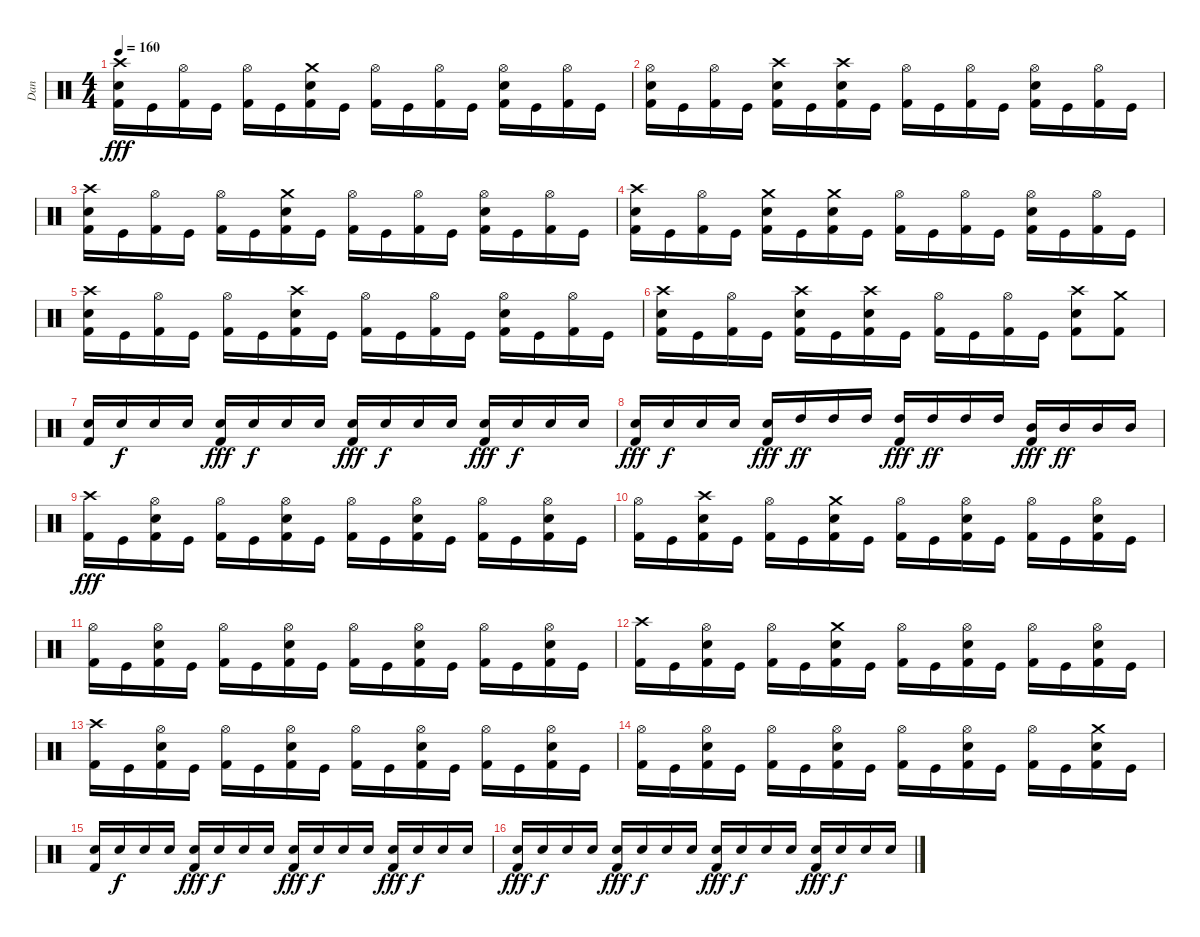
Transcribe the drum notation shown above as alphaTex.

\track ("Dan " "Dan ") {instrument percussion}
\staff {score}
\articulation defaults
\ts (4 4)
\tempo 160
\clef neutral
\ks c
("Crash high (hit)" "Electric Snare (hit)" "Kick (hit) 2").16{dy fff} "Kick (hit)".16 ("Hi-Hat (open)" "Kick (hit) 2").16 "Kick (hit)".16 ("Hi-Hat (open)" "Kick (hit) 2").16 "Kick (hit)".16 ("Crash medium (hit)" "Electric Snare (hit)" "Kick (hit) 2").16 "Kick (hit)".16 ("Hi-Hat (open)" "Kick (hit) 2").16 "Kick (hit)".16 ("Hi-Hat (open)" "Kick (hit) 2").16 "Kick (hit)".16 ("Hi-Hat (open)" "Electric Snare (hit)" "Kick (hit) 2").16 "Kick (hit)".16 ("Hi-Hat (open)" "Kick (hit) 2").16 "Kick (hit)".16 |
("Hi-Hat (open)" "Electric Snare (hit)" "Kick (hit) 2").16 "Kick (hit)".16 ("Hi-Hat (open)" "Kick (hit) 2").16 "Kick (hit)".16 ("Crash high (hit)" "Electric Snare (hit)" "Kick (hit) 2").16 "Kick (hit)".16 ("Crash high (hit)" "Electric Snare (hit)" "Kick (hit) 2").16 "Kick (hit)".16 ("Hi-Hat (open)" "Kick (hit) 2").16 "Kick (hit)".16 ("Hi-Hat (open)" "Kick (hit) 2").16 "Kick (hit)".16 ("Hi-Hat (open)" "Electric Snare (hit)" "Kick (hit) 2").16 "Kick (hit)".16 ("Hi-Hat (open)" "Kick (hit) 2").16 "Kick (hit)".16 |
("Crash high (hit)" "Electric Snare (hit)" "Kick (hit) 2").16 "Kick (hit)".16 ("Hi-Hat (open)" "Kick (hit) 2").16 "Kick (hit)".16 ("Hi-Hat (open)" "Kick (hit) 2").16 "Kick (hit)".16 ("Crash medium (hit)" "Electric Snare (hit)" "Kick (hit) 2").16 "Kick (hit)".16 ("Hi-Hat (open)" "Kick (hit) 2").16 "Kick (hit)".16 ("Hi-Hat (open)" "Kick (hit) 2").16 "Kick (hit)".16 ("Hi-Hat (open)" "Electric Snare (hit)" "Kick (hit) 2").16 "Kick (hit)".16 ("Hi-Hat (open)" "Kick (hit) 2").16 "Kick (hit)".16 |
("Crash high (hit)" "Electric Snare (hit)" "Kick (hit) 2").16 "Kick (hit)".16 ("Hi-Hat (open)" "Kick (hit) 2").16 "Kick (hit)".16 ("Crash medium (hit)" "Electric Snare (hit)" "Kick (hit) 2").16 "Kick (hit)".16 ("Crash medium (hit)" "Electric Snare (hit)" "Kick (hit) 2").16 "Kick (hit)".16 ("Hi-Hat (open)" "Kick (hit) 2").16 "Kick (hit)".16 ("Hi-Hat (open)" "Kick (hit) 2").16 "Kick (hit)".16 ("Hi-Hat (open)" "Electric Snare (hit)" "Kick (hit) 2").16 "Kick (hit)".16 ("Hi-Hat (open)" "Kick (hit) 2").16 "Kick (hit)".16 |
("Crash high (hit)" "Electric Snare (hit)" "Kick (hit) 2").16 "Kick (hit)".16 ("Hi-Hat (open)" "Kick (hit) 2").16 "Kick (hit)".16 ("Hi-Hat (open)" "Kick (hit) 2").16 "Kick (hit)".16 ("Crash high (hit)" "Electric Snare (hit)" "Kick (hit) 2").16 "Kick (hit)".16 ("Hi-Hat (open)" "Kick (hit) 2").16 "Kick (hit)".16 ("Hi-Hat (open)" "Kick (hit) 2").16 "Kick (hit)".16 ("Hi-Hat (open)" "Electric Snare (hit)" "Kick (hit) 2").16 "Kick (hit)".16 ("Hi-Hat (open)" "Kick (hit) 2").16 "Kick (hit)".16 |
("Crash high (hit)" "Electric Snare (hit)" "Kick (hit) 2").16 "Kick (hit)".16 ("Hi-Hat (open)" "Kick (hit) 2").16 "Kick (hit)".16 ("Crash high (hit)" "Electric Snare (hit)" "Kick (hit) 2").16 "Kick (hit)".16 ("Crash high (hit)" "Electric Snare (hit)" "Kick (hit) 2").16 "Kick (hit)".16 ("Hi-Hat (open)" "Kick (hit) 2").16 "Kick (hit)".16 ("Hi-Hat (open)" "Kick (hit) 2").16 "Kick (hit)".16 ("Crash high (hit)" "Electric Snare (hit)" "Kick (hit) 2").8 ("Crash medium (hit)" "Kick (hit) 2").8 |
("Electric Snare (hit)" "Kick (hit) 2").16 "Electric Snare (hit)".16{dy f} "Electric Snare (hit)".16 "Electric Snare (hit)".16 ("Electric Snare (hit)" "Kick (hit) 2").16{dy fff} "Electric Snare (hit)".16{dy f} "Electric Snare (hit)".16 "Electric Snare (hit)".16 ("Electric Snare (hit)" "Kick (hit) 2").16{dy fff} "Electric Snare (hit)".16{dy f} "Electric Snare (hit)".16 "Electric Snare (hit)".16 ("Electric Snare (hit)" "Kick (hit) 2").16{dy fff} "Electric Snare (hit)".16{dy f} "Electric Snare (hit)".16 "Electric Snare (hit)".16 |
("Electric Snare (hit)" "Kick (hit) 2").16{dy fff} "Electric Snare (hit)".16{dy f} "Electric Snare (hit)".16 "Electric Snare (hit)".16 ("Electric Snare (hit)" "Kick (hit) 2").16{dy fff} "High Tom (hit)".16{dy ff} "High Tom (hit)".16 "High Tom (hit)".16 ("High Tom (hit)" "Kick (hit) 2").16{dy fff} "High Tom (hit)".16{dy ff} "High Tom (hit)".16 "High Tom (hit)".16 ("Mid Tom (hit)" "Kick (hit) 2").16{dy fff} "Mid Tom (hit)".16{dy ff} "Mid Tom (hit)".16 "Mid Tom (hit)".16 |
("Crash high (hit)" "Kick (hit) 2").16{dy fff} "Kick (hit)".16 ("Hi-Hat (open)" "Electric Snare (hit)" "Kick (hit) 2").16 "Kick (hit)".16 ("Hi-Hat (open)" "Kick (hit) 2").16 "Kick (hit)".16 ("Hi-Hat (open)" "Electric Snare (hit)" "Kick (hit) 2").16 "Kick (hit)".16 ("Hi-Hat (open)" "Kick (hit) 2").16 "Kick (hit)".16 ("Hi-Hat (open)" "Electric Snare (hit)" "Kick (hit) 2").16 "Kick (hit)".16 ("Hi-Hat (open)" "Kick (hit) 2").16 "Kick (hit)".16 ("Hi-Hat (open)" "Electric Snare (hit)" "Kick (hit) 2").16 "Kick (hit)".16 |
("Hi-Hat (open)" "Kick (hit) 2").16 "Kick (hit)".16 ("Crash high (hit)" "Electric Snare (hit)" "Kick (hit) 2").16 "Kick (hit)".16 ("Hi-Hat (open)" "Kick (hit) 2").16 "Kick (hit)".16 ("Crash medium (hit)" "Electric Snare (hit)" "Kick (hit) 2").16 "Kick (hit)".16 ("Hi-Hat (open)" "Kick (hit) 2").16 "Kick (hit)".16 ("Hi-Hat (open)" "Electric Snare (hit)" "Kick (hit) 2").16 "Kick (hit)".16 ("Hi-Hat (open)" "Kick (hit) 2").16 "Kick (hit)".16 ("Hi-Hat (open)" "Electric Snare (hit)" "Kick (hit) 2").16 "Kick (hit)".16 |
("Hi-Hat (open)" "Kick (hit) 2").16 "Kick (hit)".16 ("Hi-Hat (open)" "Electric Snare (hit)" "Kick (hit) 2").16 "Kick (hit)".16 ("Hi-Hat (open)" "Kick (hit) 2").16 "Kick (hit)".16 ("Hi-Hat (open)" "Electric Snare (hit)" "Kick (hit) 2").16 "Kick (hit)".16 ("Hi-Hat (open)" "Kick (hit) 2").16 "Kick (hit)".16 ("Hi-Hat (open)" "Electric Snare (hit)" "Kick (hit) 2").16 "Kick (hit)".16 ("Hi-Hat (open)" "Kick (hit) 2").16 "Kick (hit)".16 ("Hi-Hat (open)" "Electric Snare (hit)" "Kick (hit) 2").16 "Kick (hit)".16 |
("Crash high (hit)" "Kick (hit) 2").16 "Kick (hit)".16 ("Hi-Hat (open)" "Electric Snare (hit)" "Kick (hit) 2").16 "Kick (hit)".16 ("Hi-Hat (open)" "Kick (hit) 2").16 "Kick (hit)".16 ("Crash medium (hit)" "Electric Snare (hit)" "Kick (hit) 2").16 "Kick (hit)".16 ("Hi-Hat (open)" "Kick (hit) 2").16 "Kick (hit)".16 ("Hi-Hat (open)" "Electric Snare (hit)" "Kick (hit) 2").16 "Kick (hit)".16 ("Hi-Hat (open)" "Kick (hit) 2").16 "Kick (hit)".16 ("Hi-Hat (open)" "Electric Snare (hit)" "Kick (hit) 2").16 "Kick (hit)".16 |
("Crash high (hit)" "Kick (hit) 2").16 "Kick (hit)".16 ("Hi-Hat (open)" "Electric Snare (hit)" "Kick (hit) 2").16 "Kick (hit)".16 ("Hi-Hat (open)" "Kick (hit) 2").16 "Kick (hit)".16 ("Hi-Hat (open)" "Electric Snare (hit)" "Kick (hit) 2").16 "Kick (hit)".16 ("Hi-Hat (open)" "Kick (hit) 2").16 "Kick (hit)".16 ("Hi-Hat (open)" "Electric Snare (hit)" "Kick (hit) 2").16 "Kick (hit)".16 ("Hi-Hat (open)" "Kick (hit) 2").16 "Kick (hit)".16 ("Hi-Hat (open)" "Electric Snare (hit)" "Kick (hit) 2").16 "Kick (hit)".16 |
("Hi-Hat (open)" "Kick (hit) 2").16 "Kick (hit)".16 ("Hi-Hat (open)" "Electric Snare (hit)" "Kick (hit) 2").16 "Kick (hit)".16 ("Hi-Hat (open)" "Kick (hit) 2").16 "Kick (hit)".16 ("Hi-Hat (open)" "Electric Snare (hit)" "Kick (hit) 2").16 "Kick (hit)".16 ("Hi-Hat (open)" "Kick (hit) 2").16 "Kick (hit)".16 ("Hi-Hat (open)" "Electric Snare (hit)" "Kick (hit) 2").16 "Kick (hit)".16 ("Hi-Hat (open)" "Kick (hit) 2").16 "Kick (hit)".16 ("Crash medium (hit)" "Electric Snare (hit)" "Kick (hit) 2").16 "Kick (hit)".16 |
("Electric Snare (hit)" "Kick (hit) 2").16 "Electric Snare (hit)".16{dy f} "Electric Snare (hit)".16 "Electric Snare (hit)".16 ("Electric Snare (hit)" "Kick (hit) 2").16{dy fff} "Electric Snare (hit)".16{dy f} "Electric Snare (hit)".16 "Electric Snare (hit)".16 ("Electric Snare (hit)" "Kick (hit) 2").16{dy fff} "Electric Snare (hit)".16{dy f} "Electric Snare (hit)".16 "Electric Snare (hit)".16 ("Electric Snare (hit)" "Kick (hit) 2").16{dy fff} "Electric Snare (hit)".16{dy f} "Electric Snare (hit)".16 "Electric Snare (hit)".16 |
("Electric Snare (hit)" "Kick (hit) 2").16{dy fff} "Electric Snare (hit)".16{dy f} "Electric Snare (hit)".16 "Electric Snare (hit)".16 ("Electric Snare (hit)" "Kick (hit) 2").16{dy fff} "Electric Snare (hit)".16{dy f} "Electric Snare (hit)".16 "Electric Snare (hit)".16 ("Electric Snare (hit)" "Kick (hit) 2").16{dy fff} "Electric Snare (hit)".16{dy f} "Electric Snare (hit)".16 "Electric Snare (hit)".16 ("Electric Snare (hit)" "Kick (hit) 2").16{dy fff} "Electric Snare (hit)".16{dy f} "Electric Snare (hit)".16 "Electric Snare (hit)".16
